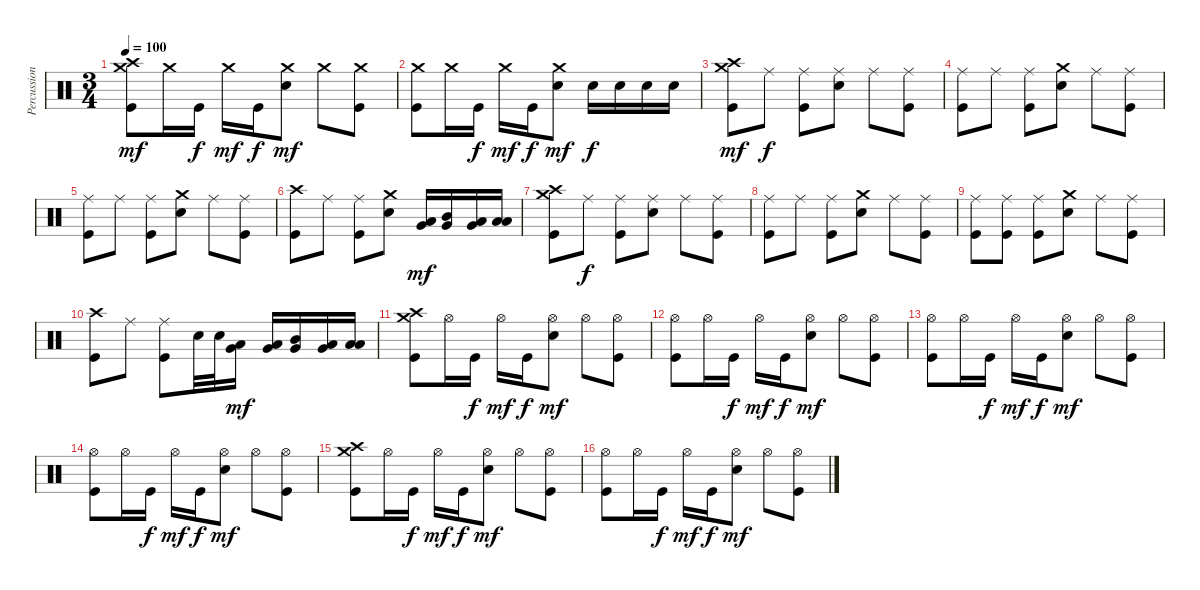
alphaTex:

\track ("Percussions" "Percussion") {instrument percussion}
\staff {score}
\articulation defaults
\ts (3 4)
\tempo 100
\clef neutral
\ks c
("Kick (hit)" "Crash medium (hit)" "Crash high (hit)").8{dy mf} "Crash medium (hit)".16 "Kick (hit)".16{dy f} "Crash medium (hit)".16{dy mf} "Kick (hit)".16{dy f} ("Electric Snare (hit)" "Crash medium (hit)").8{dy mf} "Crash medium (hit)".8 ("Kick (hit)" "Crash medium (hit)").8 |
("Kick (hit)" "Crash medium (hit)").8 "Crash medium (hit)".16 "Kick (hit)".16{dy f} "Crash medium (hit)".16{dy mf} "Kick (hit)".16{dy f} ("Electric Snare (hit)" "Crash medium (hit)").8{dy mf} "Electric Snare (hit)".16{dy f} "Electric Snare (hit)".16 "Electric Snare (hit)".16 "Electric Snare (hit)".16 |
("Kick (hit)" "Crash medium (hit)" "Crash high (hit)").8{dy mf} "Ride (middle)".8{dy f} ("Kick (hit)" "Ride (middle)").8 ("Electric Snare (hit)" "Ride (middle)").8 "Ride (middle)".8 ("Kick (hit)" "Ride (middle)").8 |
("Kick (hit)" "Ride (middle)").8 "Ride (middle)".8 ("Kick (hit)" "Ride (middle)").8 ("Electric Snare (hit)" "Crash medium (hit)").8 "Ride (middle)".8 ("Kick (hit)" "Ride (middle)").8 |
("Kick (hit)" "Ride (middle)").8 "Ride (middle)".8 ("Kick (hit)" "Ride (middle)").8 ("Electric Snare (hit)" "Crash medium (hit)").8 "Ride (middle)".8 ("Kick (hit)" "Ride (middle)").8 |
("Kick (hit)" "Crash high (hit)").8 "Ride (middle)".8 ("Kick (hit)" "Ride (middle)").8 ("Electric Snare (hit)" "Crash medium (hit)").8 ("Very Low Tom (hit)" "Low Tom (hit)").16{dy mf} ("Very Low Tom (hit)" "Mid Tom (hit)").16 ("Low Floor Tom (hit)" "Very Low Tom (hit)").16 ("Low Floor Tom (hit)" "Low Tom (hit)").16 |
("Kick (hit)" "Crash medium (hit)" "Crash high (hit)").8 "Ride (middle)".8{dy f} ("Kick (hit)" "Ride (middle)").8 ("Electric Snare (hit)" "Ride (middle)").8 "Ride (middle)".8 ("Kick (hit)" "Ride (middle)").8 |
("Kick (hit)" "Ride (middle)").8 "Ride (middle)".8 ("Kick (hit)" "Ride (middle)").8 ("Electric Snare (hit)" "Crash medium (hit)").8 "Ride (middle)".8 ("Kick (hit)" "Ride (middle)").8 |
("Kick (hit)" "Ride (middle)").8 ("Kick (hit)" "Ride (middle)").8 ("Kick (hit)" "Ride (middle)").8 ("Electric Snare (hit)" "Crash medium (hit)").8 "Ride (middle)".8 ("Kick (hit)" "Ride (middle)").8 |
("Kick (hit)" "Crash high (hit)").8 "Ride (middle)".8 ("Kick (hit)" "Ride (middle)").8 "Electric Snare (hit)".32 "Electric Snare (hit)".32 ("Very Low Tom (hit)" "Low Tom (hit)").16{dy mf} ("Very Low Tom (hit)" "Low Tom (hit)").16 ("Very Low Tom (hit)" "Mid Tom (hit)").16 ("Low Floor Tom (hit)" "Very Low Tom (hit)").16 ("Low Floor Tom (hit)" "Low Tom (hit)").16 |
("Kick (hit)" "Crash medium (hit)" "Crash high (hit)").8 "Hi-Hat (open)".16 "Kick (hit)".16{dy f} "Hi-Hat (open)".16{dy mf} "Kick (hit)".16{dy f} ("Electric Snare (hit)" "Hi-Hat (open)").8{dy mf} "Hi-Hat (open)".8 ("Kick (hit)" "Hi-Hat (open)").8 |
("Kick (hit)" "Hi-Hat (open)").8 "Hi-Hat (open)".16 "Kick (hit)".16{dy f} "Hi-Hat (open)".16{dy mf} "Kick (hit)".16{dy f} ("Electric Snare (hit)" "Hi-Hat (open)").8{dy mf} "Hi-Hat (open)".8 ("Kick (hit)" "Hi-Hat (open)").8 |
("Kick (hit)" "Hi-Hat (open)").8 "Hi-Hat (open)".16 "Kick (hit)".16{dy f} "Hi-Hat (open)".16{dy mf} "Kick (hit)".16{dy f} ("Electric Snare (hit)" "Hi-Hat (open)").8{dy mf} "Hi-Hat (open)".8 ("Kick (hit)" "Hi-Hat (open)").8 |
("Kick (hit)" "Hi-Hat (open)").8 "Hi-Hat (open)".16 "Kick (hit)".16{dy f} "Hi-Hat (open)".16{dy mf} "Kick (hit)".16{dy f} ("Electric Snare (hit)" "Hi-Hat (open)").8{dy mf} "Hi-Hat (open)".8 ("Kick (hit)" "Hi-Hat (open)").8 |
("Kick (hit)" "Crash medium (hit)" "Crash high (hit)").8 "Hi-Hat (open)".16 "Kick (hit)".16{dy f} "Hi-Hat (open)".16{dy mf} "Kick (hit)".16{dy f} ("Electric Snare (hit)" "Hi-Hat (open)").8{dy mf} "Hi-Hat (open)".8 ("Kick (hit)" "Hi-Hat (open)").8 |
("Kick (hit)" "Hi-Hat (open)").8 "Hi-Hat (open)".16 "Kick (hit)".16{dy f} "Hi-Hat (open)".16{dy mf} "Kick (hit)".16{dy f} ("Electric Snare (hit)" "Hi-Hat (open)").8{dy mf} "Hi-Hat (open)".8 ("Kick (hit)" "Hi-Hat (open)").8
